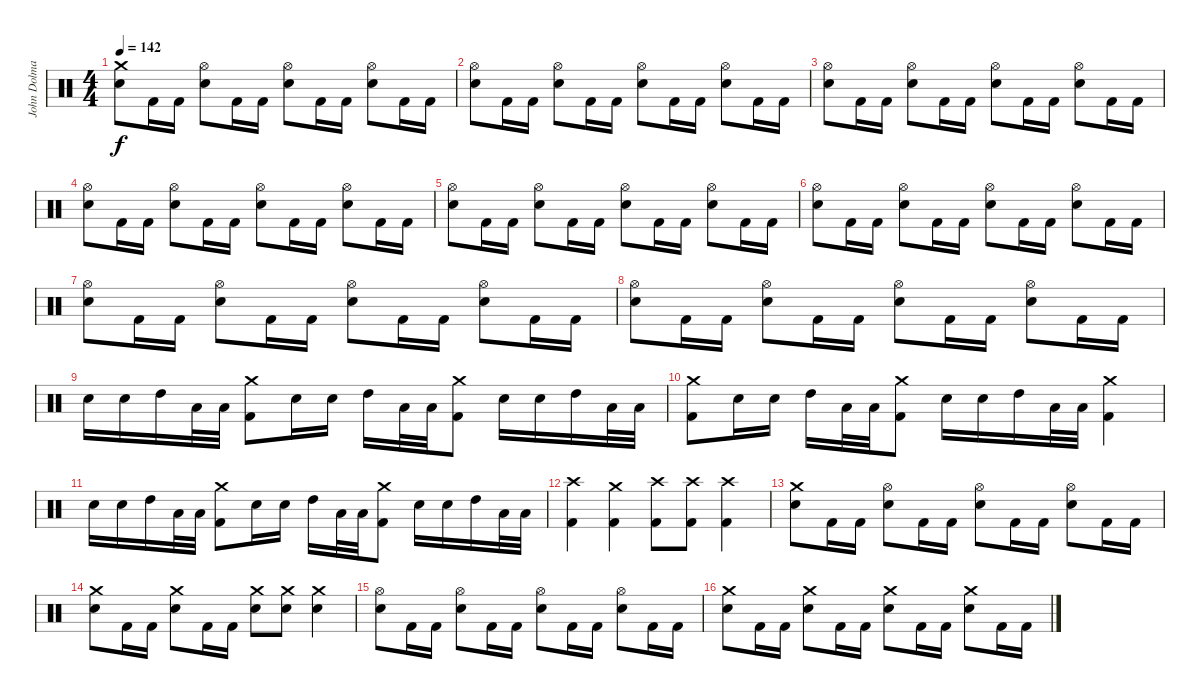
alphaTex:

\track ("John Dolmayan" "John Dolma") {instrument percussion}
\staff {score}
\articulation defaults
\ts (4 4)
\tempo 142
\clef neutral
\ks c
("Crash medium (hit)" "Electric Snare (hit)").8{dy f} "Kick (hit) 2".16 "Kick (hit) 2".16 ("Hi-Hat (open)" "Electric Snare (hit)").8 "Kick (hit) 2".16 "Kick (hit) 2".16 ("Hi-Hat (open)" "Electric Snare (hit)").8 "Kick (hit) 2".16 "Kick (hit) 2".16 ("Hi-Hat (open)" "Electric Snare (hit)").8 "Kick (hit) 2".16 "Kick (hit) 2".16 |
("Hi-Hat (open)" "Electric Snare (hit)").8 "Kick (hit) 2".16 "Kick (hit) 2".16 ("Hi-Hat (open)" "Electric Snare (hit)").8 "Kick (hit) 2".16 "Kick (hit) 2".16 ("Hi-Hat (open)" "Electric Snare (hit)").8 "Kick (hit) 2".16 "Kick (hit) 2".16 ("Hi-Hat (open)" "Electric Snare (hit)").8 "Kick (hit) 2".16 "Kick (hit) 2".16 |
("Hi-Hat (open)" "Electric Snare (hit)").8 "Kick (hit) 2".16 "Kick (hit) 2".16 ("Hi-Hat (open)" "Electric Snare (hit)").8 "Kick (hit) 2".16 "Kick (hit) 2".16 ("Hi-Hat (open)" "Electric Snare (hit)").8 "Kick (hit) 2".16 "Kick (hit) 2".16 ("Hi-Hat (open)" "Electric Snare (hit)").8 "Kick (hit) 2".16 "Kick (hit) 2".16 |
("Hi-Hat (open)" "Electric Snare (hit)").8 "Kick (hit) 2".16 "Kick (hit) 2".16 ("Hi-Hat (open)" "Electric Snare (hit)").8 "Kick (hit) 2".16 "Kick (hit) 2".16 ("Hi-Hat (open)" "Electric Snare (hit)").8 "Kick (hit) 2".16 "Kick (hit) 2".16 ("Hi-Hat (open)" "Electric Snare (hit)").8 "Kick (hit) 2".16 "Kick (hit) 2".16 |
("Hi-Hat (open)" "Electric Snare (hit)").8 "Kick (hit) 2".16 "Kick (hit) 2".16 ("Hi-Hat (open)" "Electric Snare (hit)").8 "Kick (hit) 2".16 "Kick (hit) 2".16 ("Hi-Hat (open)" "Electric Snare (hit)").8 "Kick (hit) 2".16 "Kick (hit) 2".16 ("Hi-Hat (open)" "Electric Snare (hit)").8 "Kick (hit) 2".16 "Kick (hit) 2".16 |
("Hi-Hat (open)" "Electric Snare (hit)").8 "Kick (hit) 2".16 "Kick (hit) 2".16 ("Hi-Hat (open)" "Electric Snare (hit)").8 "Kick (hit) 2".16 "Kick (hit) 2".16 ("Hi-Hat (open)" "Electric Snare (hit)").8 "Kick (hit) 2".16 "Kick (hit) 2".16 ("Hi-Hat (open)" "Electric Snare (hit)").8 "Kick (hit) 2".16 "Kick (hit) 2".16 |
("Hi-Hat (open)" "Electric Snare (hit)").8 "Kick (hit) 2".16 "Kick (hit) 2".16 ("Hi-Hat (open)" "Electric Snare (hit)").8 "Kick (hit) 2".16 "Kick (hit) 2".16 ("Hi-Hat (open)" "Electric Snare (hit)").8 "Kick (hit) 2".16 "Kick (hit) 2".16 ("Hi-Hat (open)" "Electric Snare (hit)").8 "Kick (hit) 2".16 "Kick (hit) 2".16 |
("Hi-Hat (open)" "Electric Snare (hit)").8 "Kick (hit) 2".16 "Kick (hit) 2".16 ("Hi-Hat (open)" "Electric Snare (hit)").8 "Kick (hit) 2".16 "Kick (hit) 2".16 ("Hi-Hat (open)" "Electric Snare (hit)").8 "Kick (hit) 2".16 "Kick (hit) 2".16 ("Hi-Hat (open)" "Electric Snare (hit)").8 "Kick (hit) 2".16 "Kick (hit) 2".16 |
"Electric Snare (hit)".16 "Electric Snare (hit)".16 "High Tom (hit)".16 "Low Floor Tom (hit)".32 "Low Floor Tom (hit)".32 ("Crash medium (hit)" "Kick (hit) 2").8 "Electric Snare (hit)".16 "Electric Snare (hit)".16 "High Tom (hit)".16 "Low Floor Tom (hit)".32 "Low Floor Tom (hit)".32 ("Crash medium (hit)" "Kick (hit) 2").8 "Electric Snare (hit)".16 "Electric Snare (hit)".16 "High Tom (hit)".16 "Low Floor Tom (hit)".32 "Low Floor Tom (hit)".32 |
("Crash medium (hit)" "Kick (hit) 2").8 "Electric Snare (hit)".16 "Electric Snare (hit)".16 "High Tom (hit)".16 "Low Floor Tom (hit)".32 "Low Floor Tom (hit)".32 ("Crash medium (hit)" "Kick (hit) 2").8 "Electric Snare (hit)".16 "Electric Snare (hit)".16 "High Tom (hit)".16 "Low Floor Tom (hit)".32 "Low Floor Tom (hit)".32 ("Crash medium (hit)" "Kick (hit) 2").4 |
"Electric Snare (hit)".16 "Electric Snare (hit)".16 "High Tom (hit)".16 "Low Floor Tom (hit)".32 "Low Floor Tom (hit)".32 ("Crash medium (hit)" "Kick (hit) 2").8 "Electric Snare (hit)".16 "Electric Snare (hit)".16 "High Tom (hit)".16 "Low Floor Tom (hit)".32 "Low Floor Tom (hit)".32 ("Crash medium (hit)" "Kick (hit) 2").8 "Electric Snare (hit)".16 "Electric Snare (hit)".16 "High Tom (hit)".16 "Low Floor Tom (hit)".32 "Low Floor Tom (hit)".32 |
("Crash high (hit)" "Kick (hit) 2").4 ("Crash medium (hit)" "Kick (hit) 2").4 ("Crash high (hit)" "Kick (hit) 2").8 ("Crash high (hit)" "Kick (hit) 2").8 ("Crash high (hit)" "Kick (hit) 2").4 |
("Crash medium (hit)" "Electric Snare (hit)").8 "Kick (hit) 2".16 "Kick (hit) 2".16 ("Hi-Hat (open)" "Electric Snare (hit)").8 "Kick (hit) 2".16 "Kick (hit) 2".16 ("Hi-Hat (open)" "Electric Snare (hit)").8 "Kick (hit) 2".16 "Kick (hit) 2".16 ("Hi-Hat (open)" "Electric Snare (hit)").8 "Kick (hit) 2".16 "Kick (hit) 2".16 |
("Crash medium (hit)" "Electric Snare (hit)").8 "Kick (hit) 2".16 "Kick (hit) 2".16 ("Crash medium (hit)" "Electric Snare (hit)").8 "Kick (hit) 2".16 "Kick (hit) 2".16 ("Crash medium (hit)" "Electric Snare (hit)").8 ("Crash medium (hit)" "Electric Snare (hit)").8 ("Crash medium (hit)" "Electric Snare (hit)").4 |
("Hi-Hat (open)" "Electric Snare (hit)").8 "Kick (hit) 2".16 "Kick (hit) 2".16 ("Hi-Hat (open)" "Electric Snare (hit)").8 "Kick (hit) 2".16 "Kick (hit) 2".16 ("Hi-Hat (open)" "Electric Snare (hit)").8 "Kick (hit) 2".16 "Kick (hit) 2".16 ("Hi-Hat (open)" "Electric Snare (hit)").8 "Kick (hit) 2".16 "Kick (hit) 2".16 |
("Crash medium (hit)" "Electric Snare (hit)").8 "Kick (hit) 2".16 "Kick (hit) 2".16 ("Crash medium (hit)" "Electric Snare (hit)").8 "Kick (hit) 2".16 "Kick (hit) 2".16 ("Crash medium (hit)" "Electric Snare (hit)").8 "Kick (hit) 2".16 "Kick (hit) 2".16 ("Crash medium (hit)" "Electric Snare (hit)").8 "Kick (hit) 2".16 "Kick (hit) 2".16
